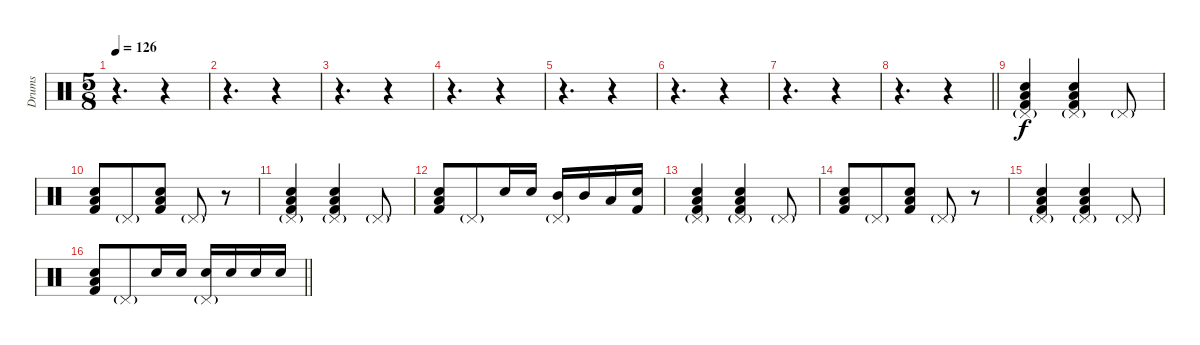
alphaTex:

\track ("Drums" "Drums") {instrument percussion}
\staff {score}
\articulation defaults
\ts (5 8)
\tempo 126
\clef neutral
\ks c
r.4{d dy f} r.4 |
r.4{d} r.4 |
r.4{d} r.4 |
r.4{d} r.4 |
r.4{d} r.4 |
r.4{d} r.4 |
r.4{d} r.4 |
\barLineRight lightlight
r.4{d} r.4 |
("Pedal Hi-Hat (hit)"{g} "Low Tom (hit)" "Snare (hit) 2" "Kick (hit) 2").4 ("Pedal Hi-Hat (hit)"{g} "Low Tom (hit)" "Snare (hit) 2" "Kick (hit) 2").4 "Pedal Hi-Hat (hit)"{g}.8 |
("Low Tom (hit)" "Snare (hit) 2" "Kick (hit) 2").8 "Pedal Hi-Hat (hit)"{g}.8 ("Low Tom (hit)" "Snare (hit) 2" "Kick (hit) 2").8 "Pedal Hi-Hat (hit)"{g}.8 r.8 |
("Pedal Hi-Hat (hit)"{g} "Low Tom (hit)" "Snare (hit) 2" "Kick (hit) 2").4 ("Pedal Hi-Hat (hit)"{g} "Low Tom (hit)" "Snare (hit) 2" "Kick (hit) 2").4 "Pedal Hi-Hat (hit)"{g}.8 |
("Low Tom (hit)" "Snare (hit) 2" "Kick (hit) 2").8 "Pedal Hi-Hat (hit)"{g}.8 "Snare (hit) 2".16 "Snare (hit) 2".16 ("Pedal Hi-Hat (hit)"{g} "Mid Tom (hit)").16 "Mid Tom (hit)".16 "Low Tom (hit)".16 ("Snare (hit) 2" "Kick (hit) 2").16 |
("Pedal Hi-Hat (hit)"{g} "Low Tom (hit)" "Snare (hit) 2" "Kick (hit) 2").4 ("Pedal Hi-Hat (hit)"{g} "Low Tom (hit)" "Snare (hit) 2" "Kick (hit) 2").4 "Pedal Hi-Hat (hit)"{g}.8 |
("Low Tom (hit)" "Snare (hit) 2" "Kick (hit) 2").8 "Pedal Hi-Hat (hit)"{g}.8 ("Low Tom (hit)" "Snare (hit) 2" "Kick (hit) 2").8 "Pedal Hi-Hat (hit)"{g}.8 r.8 |
("Pedal Hi-Hat (hit)"{g} "Low Tom (hit)" "Snare (hit) 2" "Kick (hit) 2").4 ("Pedal Hi-Hat (hit)"{g} "Low Tom (hit)" "Snare (hit) 2" "Kick (hit) 2").4 "Pedal Hi-Hat (hit)"{g}.8 |
\barLineRight lightlight
("Low Tom (hit)" "Snare (hit) 2" "Kick (hit) 2").8 "Pedal Hi-Hat (hit)"{g}.8 "Snare (hit) 2".16 "Snare (hit) 2".16 ("Pedal Hi-Hat (hit)"{g} "Snare (hit) 2").16 "Snare (hit) 2".16 "Snare (hit) 2".16 "Snare (hit) 2".16
